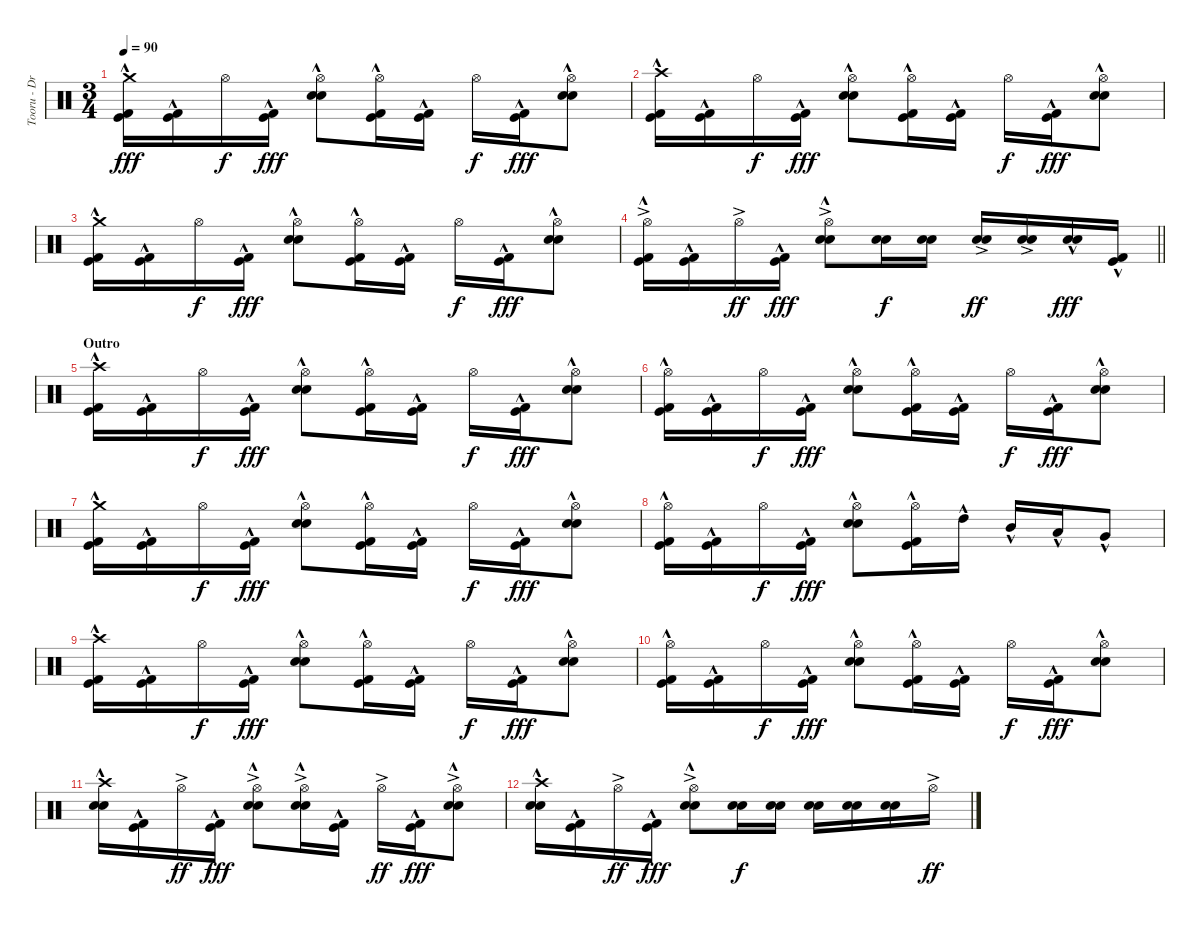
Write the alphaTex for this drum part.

\track ("Tooru - Drums" "Tooru - Dr") {instrument percussion}
\staff {score}
\articulation defaults
\ts (3 4)
\tempo 90
\clef neutral
\ks c
("Crash medium (hit)"{hac} "Kick (hit)"{hac} "Kick (hit) 2"{hac}).16{dy fff} ("Kick (hit)"{hac} "Kick (hit) 2"{hac}).16 "Hi-Hat (open)".16{dy f} ("Kick (hit)"{hac} "Kick (hit) 2"{hac}).16{dy fff} ("Hi-Hat (open)" "Electric Snare (hit)"{hac} "Snare (hit) 2"{hac}).8 ("Hi-Hat (open)" "Kick (hit)"{hac} "Kick (hit) 2"{hac}).16 ("Kick (hit)"{hac} "Kick (hit) 2"{hac}).16 "Hi-Hat (open)".16{dy f} ("Kick (hit)"{hac} "Kick (hit) 2"{hac}).16{dy fff} ("Hi-Hat (open)" "Electric Snare (hit)"{hac} "Snare (hit) 2"{hac}).8 |
("Crash high (hit)"{hac} "Kick (hit)"{hac} "Kick (hit) 2"{hac}).16 ("Kick (hit)"{hac} "Kick (hit) 2"{hac}).16 "Hi-Hat (open)".16{dy f} ("Kick (hit)"{hac} "Kick (hit) 2"{hac}).16{dy fff} ("Hi-Hat (open)" "Electric Snare (hit)"{hac} "Snare (hit) 2"{hac}).8 ("Hi-Hat (open)" "Kick (hit)"{hac} "Kick (hit) 2"{hac}).16 ("Kick (hit)"{hac} "Kick (hit) 2"{hac}).16 "Hi-Hat (open)".16{dy f} ("Kick (hit)"{hac} "Kick (hit) 2"{hac}).16{dy fff} ("Hi-Hat (open)" "Electric Snare (hit)"{hac} "Snare (hit) 2"{hac}).8 |
("Crash medium (hit)"{hac} "Kick (hit)"{hac} "Kick (hit) 2"{hac}).16 ("Kick (hit)"{hac} "Kick (hit) 2"{hac}).16 "Hi-Hat (open)".16{dy f} ("Kick (hit)"{hac} "Kick (hit) 2"{hac}).16{dy fff} ("Hi-Hat (open)" "Electric Snare (hit)"{hac} "Snare (hit) 2"{hac}).8 ("Hi-Hat (open)" "Kick (hit)"{hac} "Kick (hit) 2"{hac}).16 ("Kick (hit)"{hac} "Kick (hit) 2"{hac}).16 "Hi-Hat (open)".16{dy f} ("Kick (hit)"{hac} "Kick (hit) 2"{hac}).16{dy fff} ("Hi-Hat (open)" "Electric Snare (hit)"{hac} "Snare (hit) 2"{hac}).8 |
\barLineRight lightlight
("Hi-Hat (open)"{ac} "Kick (hit)"{hac} "Kick (hit) 2"{hac}).16 ("Kick (hit)"{hac} "Kick (hit) 2"{hac}).16 "Hi-Hat (open)"{ac}.16{dy ff} ("Kick (hit)"{hac} "Kick (hit) 2"{hac}).16{dy fff} ("Hi-Hat (open)"{ac} "Electric Snare (hit)"{hac} "Snare (hit) 2"{hac}).8 ("Electric Snare (hit)" "Snare (hit) 2").16{dy f} ("Electric Snare (hit)" "Snare (hit) 2").16 ("Electric Snare (hit)"{ac} "Snare (hit) 2"{ac}).16{dy ff} ("Electric Snare (hit)"{ac} "Snare (hit) 2"{ac}).16 ("Electric Snare (hit)"{hac} "Snare (hit) 2"{hac}).16{dy fff} ("Kick (hit)"{hac} "Kick (hit) 2"{hac}).16 |
\section ("" "Outro")
("Crash high (hit)"{hac} "Kick (hit)"{hac} "Kick (hit) 2"{hac}).16 ("Kick (hit)"{hac} "Kick (hit) 2"{hac}).16 "Hi-Hat (open)".16{dy f} ("Kick (hit)"{hac} "Kick (hit) 2"{hac}).16{dy fff} ("Hi-Hat (open)" "Electric Snare (hit)"{hac} "Snare (hit) 2"{hac}).8 ("Hi-Hat (open)" "Kick (hit)"{hac} "Kick (hit) 2"{hac}).16 ("Kick (hit)"{hac} "Kick (hit) 2"{hac}).16 "Hi-Hat (open)".16{dy f} ("Kick (hit)"{hac} "Kick (hit) 2"{hac}).16{dy fff} ("Hi-Hat (open)" "Electric Snare (hit)"{hac} "Snare (hit) 2"{hac}).8 |
("Hi-Hat (open)" "Kick (hit)"{hac} "Kick (hit) 2"{hac}).16 ("Kick (hit)"{hac} "Kick (hit) 2"{hac}).16 "Hi-Hat (open)".16{dy f} ("Kick (hit)"{hac} "Kick (hit) 2"{hac}).16{dy fff} ("Hi-Hat (open)" "Electric Snare (hit)"{hac} "Snare (hit) 2"{hac}).8 ("Hi-Hat (open)" "Kick (hit)"{hac} "Kick (hit) 2"{hac}).16 ("Kick (hit)"{hac} "Kick (hit) 2"{hac}).16 "Hi-Hat (open)".16{dy f} ("Kick (hit)"{hac} "Kick (hit) 2"{hac}).16{dy fff} ("Hi-Hat (open)" "Electric Snare (hit)"{hac} "Snare (hit) 2"{hac}).8 |
("Crash medium (hit)"{hac} "Kick (hit)"{hac} "Kick (hit) 2"{hac}).16 ("Kick (hit)"{hac} "Kick (hit) 2"{hac}).16 "Hi-Hat (open)".16{dy f} ("Kick (hit)"{hac} "Kick (hit) 2"{hac}).16{dy fff} ("Hi-Hat (open)" "Electric Snare (hit)"{hac} "Snare (hit) 2"{hac}).8 ("Hi-Hat (open)" "Kick (hit)"{hac} "Kick (hit) 2"{hac}).16 ("Kick (hit)"{hac} "Kick (hit) 2"{hac}).16 "Hi-Hat (open)".16{dy f} ("Kick (hit)"{hac} "Kick (hit) 2"{hac}).16{dy fff} ("Hi-Hat (open)" "Electric Snare (hit)"{hac} "Snare (hit) 2"{hac}).8 |
("Hi-Hat (open)" "Kick (hit)"{hac} "Kick (hit) 2"{hac}).16 ("Kick (hit)"{hac} "Kick (hit) 2"{hac}).16 "Hi-Hat (open)".16{dy f} ("Kick (hit)"{hac} "Kick (hit) 2"{hac}).16{dy fff} ("Hi-Hat (open)" "Electric Snare (hit)"{hac} "Snare (hit) 2"{hac}).8 ("Hi-Hat (open)" "Kick (hit)"{hac} "Kick (hit) 2"{hac}).16 "High Tom (hit)"{hac}.16 "Mid Tom (hit)"{hac}.16 "Low Tom (hit)"{hac}.16 "Very Low Tom (hit)"{hac}.8 |
("Crash high (hit)"{hac} "Kick (hit)"{hac} "Kick (hit) 2"{hac}).16 ("Kick (hit)"{hac} "Kick (hit) 2"{hac}).16 "Hi-Hat (open)".16{dy f} ("Kick (hit)"{hac} "Kick (hit) 2"{hac}).16{dy fff} ("Hi-Hat (open)" "Electric Snare (hit)"{hac} "Snare (hit) 2"{hac}).8 ("Hi-Hat (open)" "Kick (hit)"{hac} "Kick (hit) 2"{hac}).16 ("Kick (hit)"{hac} "Kick (hit) 2"{hac}).16 "Hi-Hat (open)".16{dy f} ("Kick (hit)"{hac} "Kick (hit) 2"{hac}).16{dy fff} ("Hi-Hat (open)" "Electric Snare (hit)"{hac} "Snare (hit) 2"{hac}).8 |
("Hi-Hat (open)" "Kick (hit)"{hac} "Kick (hit) 2"{hac}).16 ("Kick (hit)"{hac} "Kick (hit) 2"{hac}).16 "Hi-Hat (open)".16{dy f} ("Kick (hit)"{hac} "Kick (hit) 2"{hac}).16{dy fff} ("Hi-Hat (open)" "Electric Snare (hit)"{hac} "Snare (hit) 2"{hac}).8 ("Hi-Hat (open)" "Kick (hit)"{hac} "Kick (hit) 2"{hac}).16 ("Kick (hit)"{hac} "Kick (hit) 2"{hac}).16 "Hi-Hat (open)".16{dy f} ("Kick (hit)"{hac} "Kick (hit) 2"{hac}).16{dy fff} ("Hi-Hat (open)" "Electric Snare (hit)"{hac} "Snare (hit) 2"{hac}).8 |
("Crash high (hit)"{hac} "Electric Snare (hit)"{hac} "Snare (hit) 2"{hac}).16 ("Kick (hit)"{hac} "Kick (hit) 2"{hac}).16 "Hi-Hat (open)"{ac}.16{dy ff} ("Kick (hit)"{hac} "Kick (hit) 2"{hac}).16{dy fff} ("Hi-Hat (open)"{ac} "Electric Snare (hit)"{hac} "Snare (hit) 2"{hac}).8 ("Hi-Hat (open)"{ac} "Electric Snare (hit)"{hac} "Snare (hit) 2"{hac}).16 ("Kick (hit)"{hac} "Kick (hit) 2"{hac}).16 "Hi-Hat (open)"{ac}.16{dy ff} ("Kick (hit)"{hac} "Kick (hit) 2"{hac}).16{dy fff} ("Hi-Hat (open)"{ac} "Electric Snare (hit)"{hac} "Snare (hit) 2"{hac}).8 |
("Crash high (hit)"{hac} "Electric Snare (hit)"{hac} "Snare (hit) 2"{hac}).16 ("Kick (hit)"{hac} "Kick (hit) 2"{hac}).16 "Hi-Hat (open)"{ac}.16{dy ff} ("Kick (hit)"{hac} "Kick (hit) 2"{hac}).16{dy fff} ("Hi-Hat (open)"{ac} "Electric Snare (hit)"{hac} "Snare (hit) 2"{hac}).8 ("Electric Snare (hit)" "Snare (hit) 2").16{dy f} ("Electric Snare (hit)" "Snare (hit) 2").16 ("Electric Snare (hit)" "Snare (hit) 2").16 ("Electric Snare (hit)" "Snare (hit) 2").16 ("Electric Snare (hit)" "Snare (hit) 2").16 "Hi-Hat (open)"{ac}.16{dy ff}
